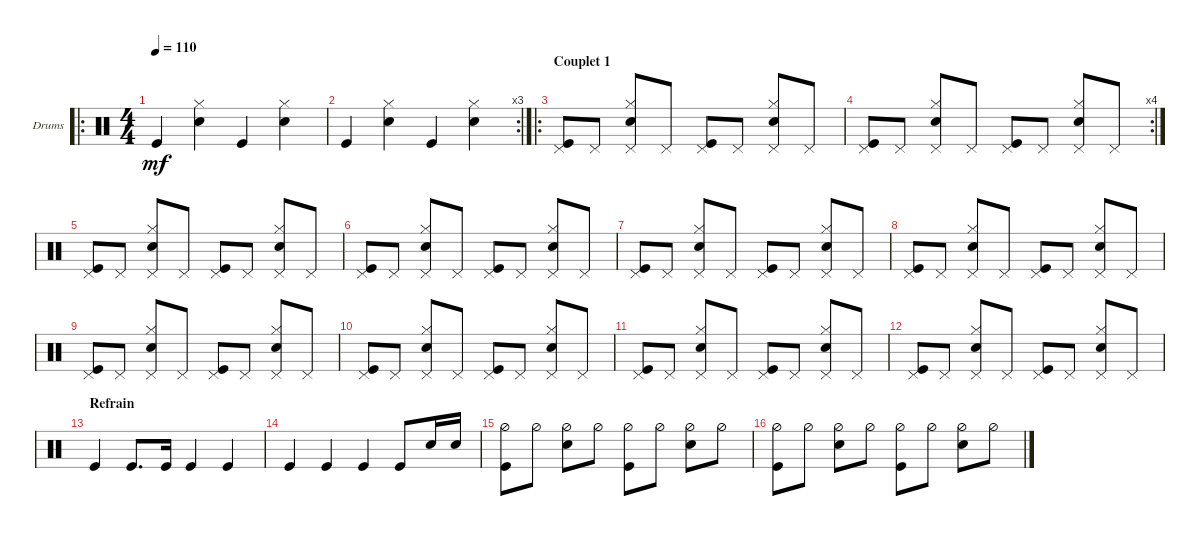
\defaultSystemsLayout 4
\bracketExtendMode groupsimilarinstruments
\firstSystemTrackNameOrientation horizontal
\otherSystemsTrackNameOrientation horizontal
\track ("Drumkit" "Drums") {instrument percussion}
\staff {score}
\articulation defaults
\ro
\ts (4 4)
\tempo 110
\clef neutral
\ks c "Kick (hit)".4{dy mf}
("Snare (hit) 2" "Hi-Hat (closed)").4 "Kick (hit)".4 ("Snare (hit) 2" "Hi-Hat (closed)").4 |
\rc 3 "Kick (hit)".4
("Snare (hit) 2" "Hi-Hat (closed)").4 "Kick (hit)".4 ("Snare (hit) 2" "Hi-Hat (closed)").4 |
\ro
\section ("" "Couplet 1")
("Kick (hit)" "Pedal Hi-Hat (hit)").8 "Pedal Hi-Hat (hit)".8 ("Snare (hit) 2" "Hi-Hat (closed)" "Pedal Hi-Hat (hit)").8 "Pedal Hi-Hat (hit)".8 ("Kick (hit)" "Pedal Hi-Hat (hit)").8 "Pedal Hi-Hat (hit)".8 ("Snare (hit) 2" "Hi-Hat (closed)" "Pedal Hi-Hat (hit)").8 "Pedal Hi-Hat (hit)".8 |
\rc 4
("Kick (hit)" "Pedal Hi-Hat (hit)").8 "Pedal Hi-Hat (hit)".8 ("Snare (hit) 2" "Hi-Hat (closed)" "Pedal Hi-Hat (hit)").8 "Pedal Hi-Hat (hit)".8 ("Kick (hit)" "Pedal Hi-Hat (hit)").8 "Pedal Hi-Hat (hit)".8 ("Snare (hit) 2" "Hi-Hat (closed)" "Pedal Hi-Hat (hit)").8 "Pedal Hi-Hat (hit)".8 |
("Kick (hit)" "Pedal Hi-Hat (hit)").8 "Pedal Hi-Hat (hit)".8 ("Snare (hit) 2" "Hi-Hat (closed)" "Pedal Hi-Hat (hit)").8 "Pedal Hi-Hat (hit)".8 ("Kick (hit)" "Pedal Hi-Hat (hit)").8 "Pedal Hi-Hat (hit)".8 ("Snare (hit) 2" "Hi-Hat (closed)" "Pedal Hi-Hat (hit)").8 "Pedal Hi-Hat (hit)".8 |
("Kick (hit)" "Pedal Hi-Hat (hit)").8 "Pedal Hi-Hat (hit)".8 ("Snare (hit) 2" "Hi-Hat (closed)" "Pedal Hi-Hat (hit)").8 "Pedal Hi-Hat (hit)".8 ("Kick (hit)" "Pedal Hi-Hat (hit)").8 "Pedal Hi-Hat (hit)".8 ("Snare (hit) 2" "Hi-Hat (closed)" "Pedal Hi-Hat (hit)").8 "Pedal Hi-Hat (hit)".8 |
("Kick (hit)" "Pedal Hi-Hat (hit)").8 "Pedal Hi-Hat (hit)".8 ("Snare (hit) 2" "Hi-Hat (closed)" "Pedal Hi-Hat (hit)").8 "Pedal Hi-Hat (hit)".8 ("Kick (hit)" "Pedal Hi-Hat (hit)").8 "Pedal Hi-Hat (hit)".8 ("Snare (hit) 2" "Hi-Hat (closed)" "Pedal Hi-Hat (hit)").8 "Pedal Hi-Hat (hit)".8 |
("Kick (hit)" "Pedal Hi-Hat (hit)").8 "Pedal Hi-Hat (hit)".8 ("Snare (hit) 2" "Hi-Hat (closed)" "Pedal Hi-Hat (hit)").8 "Pedal Hi-Hat (hit)".8 ("Kick (hit)" "Pedal Hi-Hat (hit)").8 "Pedal Hi-Hat (hit)".8 ("Snare (hit) 2" "Hi-Hat (closed)" "Pedal Hi-Hat (hit)").8 "Pedal Hi-Hat (hit)".8 |
("Kick (hit)" "Pedal Hi-Hat (hit)").8 "Pedal Hi-Hat (hit)".8 ("Snare (hit) 2" "Hi-Hat (closed)" "Pedal Hi-Hat (hit)").8 "Pedal Hi-Hat (hit)".8 ("Kick (hit)" "Pedal Hi-Hat (hit)").8 "Pedal Hi-Hat (hit)".8 ("Snare (hit) 2" "Hi-Hat (closed)" "Pedal Hi-Hat (hit)").8 "Pedal Hi-Hat (hit)".8 |
("Kick (hit)" "Pedal Hi-Hat (hit)").8 "Pedal Hi-Hat (hit)".8 ("Snare (hit) 2" "Hi-Hat (closed)" "Pedal Hi-Hat (hit)").8 "Pedal Hi-Hat (hit)".8 ("Kick (hit)" "Pedal Hi-Hat (hit)").8 "Pedal Hi-Hat (hit)".8 ("Snare (hit) 2" "Hi-Hat (closed)" "Pedal Hi-Hat (hit)").8 "Pedal Hi-Hat (hit)".8 |
("Kick (hit)" "Pedal Hi-Hat (hit)").8 "Pedal Hi-Hat (hit)".8 ("Snare (hit) 2" "Hi-Hat (closed)" "Pedal Hi-Hat (hit)").8 "Pedal Hi-Hat (hit)".8 ("Kick (hit)" "Pedal Hi-Hat (hit)").8 "Pedal Hi-Hat (hit)".8 ("Snare (hit) 2" "Hi-Hat (closed)" "Pedal Hi-Hat (hit)").8 "Pedal Hi-Hat (hit)".8 |
("Kick (hit)" "Pedal Hi-Hat (hit)").8 "Pedal Hi-Hat (hit)".8 ("Snare (hit) 2" "Hi-Hat (closed)" "Pedal Hi-Hat (hit)").8 "Pedal Hi-Hat (hit)".8 ("Kick (hit)" "Pedal Hi-Hat (hit)").8 "Pedal Hi-Hat (hit)".8 ("Snare (hit) 2" "Hi-Hat (closed)" "Pedal Hi-Hat (hit)").8 "Pedal Hi-Hat (hit)".8 |
\section ("" "Refrain")
"Kick (hit)".4 "Kick (hit)".8{d} "Kick (hit)".16 "Kick (hit)".4 "Kick (hit)".4 |
"Kick (hit)".4 "Kick (hit)".4 "Kick (hit)".4 "Kick (hit)".8 "Snare (hit) 2".16 "Snare (hit) 2".16 |
("Hi-Hat (half)" "Kick (hit)").8 "Hi-Hat (half)".8 ("Hi-Hat (half)" "Snare (hit) 2").8 "Hi-Hat (half)".8 ("Hi-Hat (half)" "Kick (hit)").8 "Hi-Hat (half)".8 ("Hi-Hat (half)" "Snare (hit) 2").8 "Hi-Hat (half)".8 |
("Hi-Hat (half)" "Kick (hit)").8 "Hi-Hat (half)".8 ("Hi-Hat (half)" "Snare (hit) 2").8 "Hi-Hat (half)".8 ("Hi-Hat (half)" "Kick (hit)").8 "Hi-Hat (half)".8 ("Hi-Hat (half)" "Snare (hit) 2").8 "Hi-Hat (half)".8
